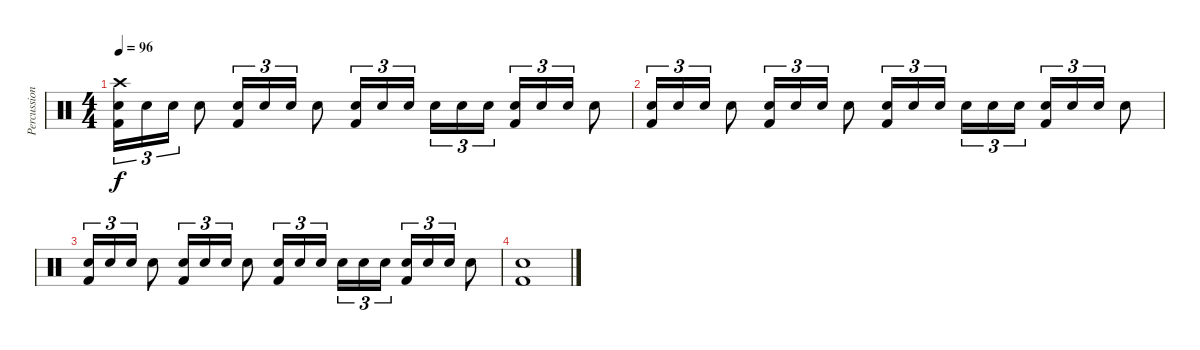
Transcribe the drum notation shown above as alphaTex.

\track ("Percussion" "Percussion") {instrument percussion}
\staff {score}
\articulation defaults
\ts (4 4)
\tempo 96
\clef neutral
\ks c
("Crash high (hit)" "Snare (hit) 2" "Kick (hit) 2").16{tu (3 2) dy f} "Snare (hit) 2".16{tu (3 2)} "Snare (hit) 2".16{tu (3 2)} "Snare (hit) 2".8 ("Snare (hit) 2" "Kick (hit) 2").16{tu (3 2)} "Snare (hit) 2".16{tu (3 2)} "Snare (hit) 2".16{tu (3 2)} "Snare (hit) 2".8 ("Snare (hit) 2" "Kick (hit) 2").16{tu (3 2)} "Snare (hit) 2".16{tu (3 2)} "Snare (hit) 2".16{tu (3 2) beam splitsecondary} "Snare (hit) 2".16{tu (3 2)} "Snare (hit) 2".16{tu (3 2)} "Snare (hit) 2".16{tu (3 2)} ("Snare (hit) 2" "Kick (hit) 2").16{tu (3 2)} "Snare (hit) 2".16{tu (3 2)} "Snare (hit) 2".16{tu (3 2)} "Snare (hit) 2".8 |
("Snare (hit) 2" "Kick (hit) 2").16{tu (3 2)} "Snare (hit) 2".16{tu (3 2)} "Snare (hit) 2".16{tu (3 2)} "Snare (hit) 2".8 ("Snare (hit) 2" "Kick (hit) 2").16{tu (3 2)} "Snare (hit) 2".16{tu (3 2)} "Snare (hit) 2".16{tu (3 2)} "Snare (hit) 2".8 ("Snare (hit) 2" "Kick (hit) 2").16{tu (3 2)} "Snare (hit) 2".16{tu (3 2)} "Snare (hit) 2".16{tu (3 2) beam splitsecondary} "Snare (hit) 2".16{tu (3 2)} "Snare (hit) 2".16{tu (3 2)} "Snare (hit) 2".16{tu (3 2)} ("Snare (hit) 2" "Kick (hit) 2").16{tu (3 2)} "Snare (hit) 2".16{tu (3 2)} "Snare (hit) 2".16{tu (3 2)} "Snare (hit) 2".8 |
("Snare (hit) 2" "Kick (hit) 2").16{tu (3 2)} "Snare (hit) 2".16{tu (3 2)} "Snare (hit) 2".16{tu (3 2)} "Snare (hit) 2".8 ("Snare (hit) 2" "Kick (hit) 2").16{tu (3 2)} "Snare (hit) 2".16{tu (3 2)} "Snare (hit) 2".16{tu (3 2)} "Snare (hit) 2".8 ("Snare (hit) 2" "Kick (hit) 2").16{tu (3 2)} "Snare (hit) 2".16{tu (3 2)} "Snare (hit) 2".16{tu (3 2) beam splitsecondary} "Snare (hit) 2".16{tu (3 2)} "Snare (hit) 2".16{tu (3 2)} "Snare (hit) 2".16{tu (3 2)} ("Snare (hit) 2" "Kick (hit) 2").16{tu (3 2)} "Snare (hit) 2".16{tu (3 2)} "Snare (hit) 2".16{tu (3 2)} "Snare (hit) 2".8 |
("Snare (hit) 2" "Kick (hit) 2").1
